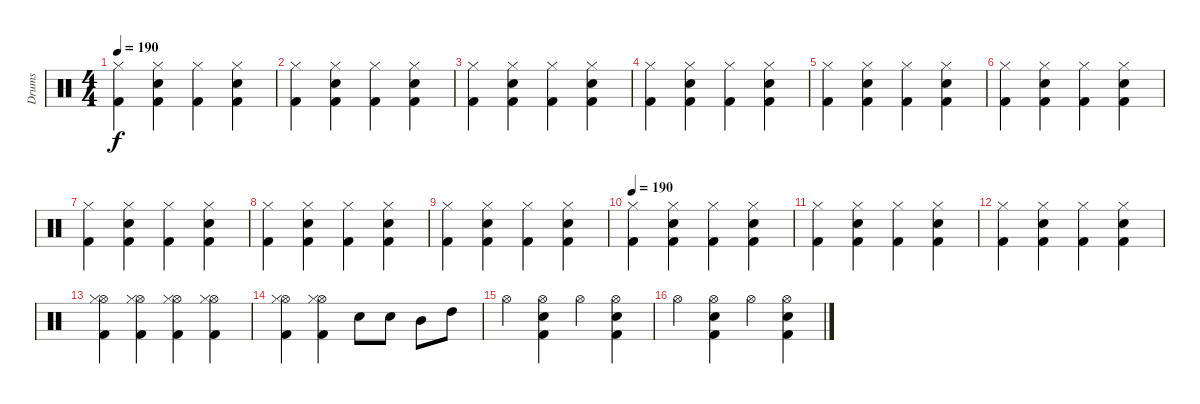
\track ("Drums" "Drums") {instrument percussion}
\staff {score}
\articulation defaults
\ts (4 4)
\tempo 190
\clef neutral
\ks c
("Hi-Hat (closed)" "Kick (hit) 2").4{dy f} ("Hi-Hat (closed)" "Snare (hit) 2" "Kick (hit) 2").4 ("Hi-Hat (closed)" "Kick (hit) 2").4 ("Hi-Hat (closed)" "Snare (hit) 2" "Kick (hit) 2").4 |
("Hi-Hat (closed)" "Kick (hit) 2").4 ("Hi-Hat (closed)" "Snare (hit) 2" "Kick (hit) 2").4 ("Hi-Hat (closed)" "Kick (hit) 2").4 ("Hi-Hat (closed)" "Snare (hit) 2" "Kick (hit) 2").4 |
("Hi-Hat (closed)" "Kick (hit) 2").4 ("Hi-Hat (closed)" "Snare (hit) 2" "Kick (hit) 2").4 ("Hi-Hat (closed)" "Kick (hit) 2").4 ("Hi-Hat (closed)" "Snare (hit) 2" "Kick (hit) 2").4 |
("Hi-Hat (closed)" "Kick (hit) 2").4 ("Hi-Hat (closed)" "Snare (hit) 2" "Kick (hit) 2").4 ("Hi-Hat (closed)" "Kick (hit) 2").4 ("Hi-Hat (closed)" "Snare (hit) 2" "Kick (hit) 2").4 |
("Hi-Hat (closed)" "Kick (hit) 2").4 ("Hi-Hat (closed)" "Snare (hit) 2" "Kick (hit) 2").4 ("Hi-Hat (closed)" "Kick (hit) 2").4 ("Hi-Hat (closed)" "Snare (hit) 2" "Kick (hit) 2").4 |
("Hi-Hat (closed)" "Kick (hit) 2").4 ("Hi-Hat (closed)" "Snare (hit) 2" "Kick (hit) 2").4 ("Hi-Hat (closed)" "Kick (hit) 2").4 ("Hi-Hat (closed)" "Snare (hit) 2" "Kick (hit) 2").4 |
("Hi-Hat (closed)" "Kick (hit) 2").4 ("Hi-Hat (closed)" "Snare (hit) 2" "Kick (hit) 2").4 ("Hi-Hat (closed)" "Kick (hit) 2").4 ("Hi-Hat (closed)" "Snare (hit) 2" "Kick (hit) 2").4 |
("Hi-Hat (closed)" "Kick (hit) 2").4 ("Hi-Hat (closed)" "Snare (hit) 2" "Kick (hit) 2").4 ("Hi-Hat (closed)" "Kick (hit) 2").4 ("Hi-Hat (closed)" "Snare (hit) 2" "Kick (hit) 2").4 |
("Hi-Hat (closed)" "Kick (hit) 2").4 ("Hi-Hat (closed)" "Snare (hit) 2" "Kick (hit) 2").4 ("Hi-Hat (closed)" "Kick (hit) 2").4 ("Hi-Hat (closed)" "Snare (hit) 2" "Kick (hit) 2").4 |
\tempo 190
("Hi-Hat (closed)" "Kick (hit) 2").4 ("Hi-Hat (closed)" "Snare (hit) 2" "Kick (hit) 2").4 ("Hi-Hat (closed)" "Kick (hit) 2").4 ("Hi-Hat (closed)" "Snare (hit) 2" "Kick (hit) 2").4 |
("Hi-Hat (closed)" "Kick (hit) 2").4 ("Hi-Hat (closed)" "Snare (hit) 2" "Kick (hit) 2").4 ("Hi-Hat (closed)" "Kick (hit) 2").4 ("Hi-Hat (closed)" "Snare (hit) 2" "Kick (hit) 2").4 |
("Hi-Hat (closed)" "Kick (hit) 2").4 ("Hi-Hat (closed)" "Snare (hit) 2" "Kick (hit) 2").4 ("Hi-Hat (closed)" "Kick (hit) 2").4 ("Hi-Hat (closed)" "Snare (hit) 2" "Kick (hit) 2").4 |
("Hi-Hat (open)" "Hi-Hat (closed)" "Kick (hit) 2").4 ("Hi-Hat (open)" "Hi-Hat (closed)" "Kick (hit) 2").4 ("Hi-Hat (open)" "Hi-Hat (closed)" "Kick (hit) 2").4 ("Hi-Hat (open)" "Hi-Hat (closed)" "Kick (hit) 2").4 |
("Hi-Hat (open)" "Hi-Hat (closed)" "Kick (hit) 2").4 ("Hi-Hat (open)" "Hi-Hat (closed)" "Kick (hit) 2").4 "Snare (hit) 2".8 "Snare (hit) 2".8 "Mid Tom (hit)".8 "High Tom (hit)".8 |
"Hi-Hat (open)".4 ("Hi-Hat (open)" "Snare (hit) 2" "Kick (hit) 2").4 "Hi-Hat (open)".4 ("Hi-Hat (open)" "Snare (hit) 2" "Kick (hit) 2").4 |
"Hi-Hat (open)".4 ("Hi-Hat (open)" "Snare (hit) 2" "Kick (hit) 2").4 "Hi-Hat (open)".4 ("Hi-Hat (open)" "Snare (hit) 2" "Kick (hit) 2").4
